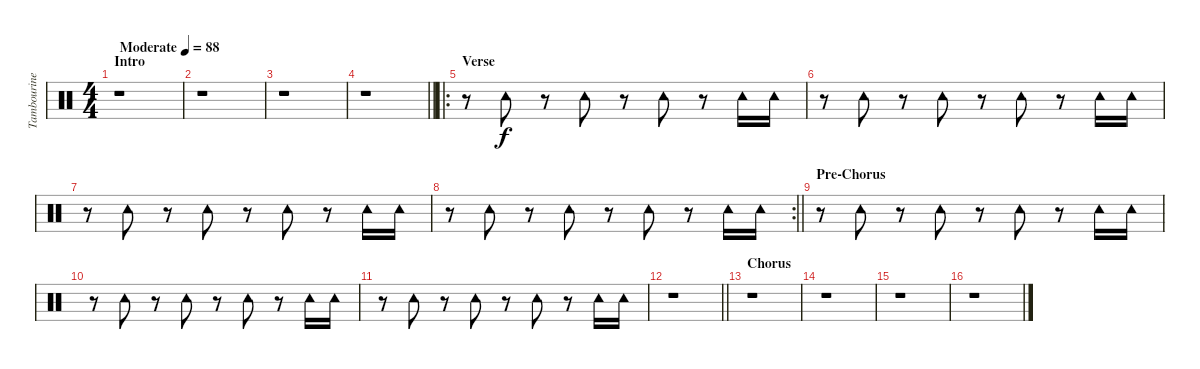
\track ("Tambourine" "Tambourine") {instrument percussion}
\staff {score}
\articulation defaults
\ts (4 4)
\section ("" "Intro")
\tempo (88 "Moderate")
\clef neutral
\ks c
r.1{dy f} |
r.1 |
r.1 |
\barLineRight lightlight
r.1 |
\ro
\section ("" "Verse")
r.8 "Tambourine (hit)".8 r.8 "Tambourine (hit)".8 r.8 "Tambourine (hit)".8 r.8 "Tambourine (hit)".16 "Tambourine (hit)".16 |
r.8 "Tambourine (hit)".8 r.8 "Tambourine (hit)".8 r.8 "Tambourine (hit)".8 r.8 "Tambourine (hit)".16 "Tambourine (hit)".16 |
r.8 "Tambourine (hit)".8 r.8 "Tambourine (hit)".8 r.8 "Tambourine (hit)".8 r.8 "Tambourine (hit)".16 "Tambourine (hit)".16 |
\rc 2
\barLineRight lightlight
r.8 "Tambourine (hit)".8 r.8 "Tambourine (hit)".8 r.8 "Tambourine (hit)".8 r.8 "Tambourine (hit)".16 "Tambourine (hit)".16 |
\section ("" "Pre-Chorus")
r.8 "Tambourine (hit)".8 r.8 "Tambourine (hit)".8 r.8 "Tambourine (hit)".8 r.8 "Tambourine (hit)".16 "Tambourine (hit)".16 |
r.8 "Tambourine (hit)".8 r.8 "Tambourine (hit)".8 r.8 "Tambourine (hit)".8 r.8 "Tambourine (hit)".16 "Tambourine (hit)".16 |
r.8 "Tambourine (hit)".8 r.8 "Tambourine (hit)".8 r.8 "Tambourine (hit)".8 r.8 "Tambourine (hit)".16 "Tambourine (hit)".16 |
\barLineRight lightlight
r.1 |
\section ("" "Chorus")
r.1 |
r.1 |
r.1 |
r.1
